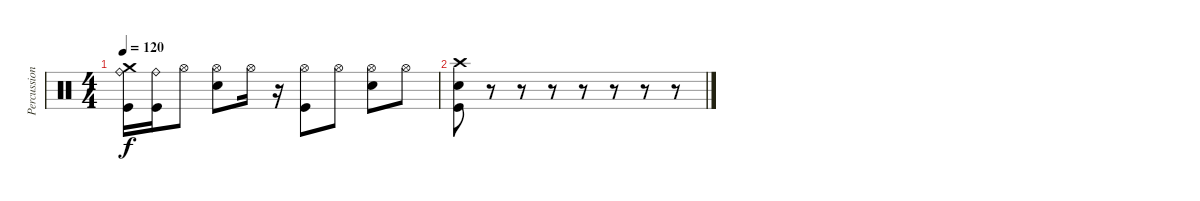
\track ("Percussion" "Percussion") {instrument percussion}
\staff {score}
\articulation defaults
\ts (4 4)
\tempo 120
\clef neutral
\ks c
("Kick (hit)" "Ride (bell)" "Crash medium (hit)").16{dy f} ("Kick (hit)" "Ride (bell)").16 "Hi-Hat (open)".8 ("Hi-Hat (open)" "Electric Snare (hit)").8 "Hi-Hat (open)".16 r.16 ("Kick (hit)" "Hi-Hat (open)").8 "Hi-Hat (open)".8 ("Hi-Hat (open)" "Electric Snare (hit)").8 "Hi-Hat (open)".8 |
("Crash high (hit)" "Electric Snare (hit)" "Kick (hit)").8 r.8 r.8 r.8 r.8 r.8 r.8 r.8
